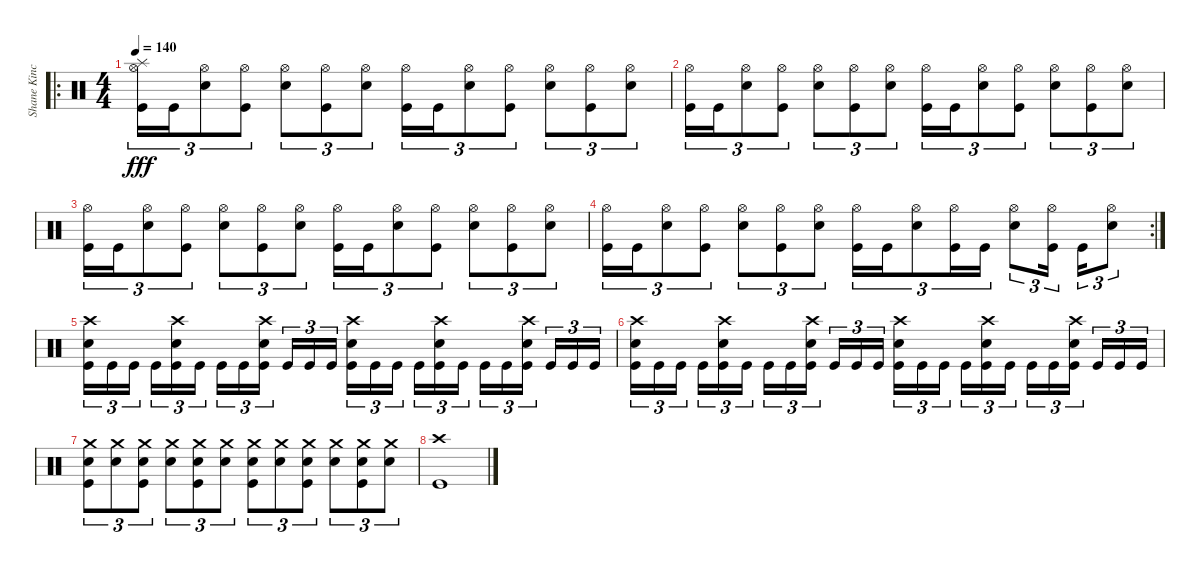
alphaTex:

\track ("Shane Kincaid" "Shane Kinc") {instrument percussion}
\staff {score}
\articulation defaults
\ro
\ts (4 4)
\tempo 140
\clef neutral
\ks c
("Hi-Hat (open)" "Splash (hit)" "Kick (hit)").16{tu (3 2) dy fff} "Kick (hit)".16{tu (3 2)} ("Hi-Hat (open)" "Electric Snare (hit)").8{tu (3 2)} ("Hi-Hat (open)" "Kick (hit)").8{tu (3 2)} ("Hi-Hat (open)" "Electric Snare (hit)").8{tu (3 2)} ("Hi-Hat (open)" "Kick (hit)").8{tu (3 2)} ("Hi-Hat (open)" "Electric Snare (hit)").8{tu (3 2)} ("Hi-Hat (open)" "Kick (hit)").16{tu (3 2)} "Kick (hit)".16{tu (3 2)} ("Hi-Hat (open)" "Electric Snare (hit)").8{tu (3 2)} ("Hi-Hat (open)" "Kick (hit)").8{tu (3 2)} ("Hi-Hat (open)" "Electric Snare (hit)").8{tu (3 2)} ("Hi-Hat (open)" "Kick (hit)").8{tu (3 2)} ("Hi-Hat (open)" "Electric Snare (hit)").8{tu (3 2)} |
("Hi-Hat (open)" "Kick (hit)").16{tu (3 2)} "Kick (hit)".16{tu (3 2)} ("Hi-Hat (open)" "Electric Snare (hit)").8{tu (3 2)} ("Hi-Hat (open)" "Kick (hit)").8{tu (3 2)} ("Hi-Hat (open)" "Electric Snare (hit)").8{tu (3 2)} ("Hi-Hat (open)" "Kick (hit)").8{tu (3 2)} ("Hi-Hat (open)" "Electric Snare (hit)").8{tu (3 2)} ("Hi-Hat (open)" "Kick (hit)").16{tu (3 2)} "Kick (hit)".16{tu (3 2)} ("Hi-Hat (open)" "Electric Snare (hit)").8{tu (3 2)} ("Hi-Hat (open)" "Kick (hit)").8{tu (3 2)} ("Hi-Hat (open)" "Electric Snare (hit)").8{tu (3 2)} ("Hi-Hat (open)" "Kick (hit)").8{tu (3 2)} ("Hi-Hat (open)" "Electric Snare (hit)").8{tu (3 2)} |
("Hi-Hat (open)" "Kick (hit)").16{tu (3 2)} "Kick (hit)".16{tu (3 2)} ("Hi-Hat (open)" "Electric Snare (hit)").8{tu (3 2)} ("Hi-Hat (open)" "Kick (hit)").8{tu (3 2)} ("Hi-Hat (open)" "Electric Snare (hit)").8{tu (3 2)} ("Hi-Hat (open)" "Kick (hit)").8{tu (3 2)} ("Hi-Hat (open)" "Electric Snare (hit)").8{tu (3 2)} ("Hi-Hat (open)" "Kick (hit)").16{tu (3 2)} "Kick (hit)".16{tu (3 2)} ("Hi-Hat (open)" "Electric Snare (hit)").8{tu (3 2)} ("Hi-Hat (open)" "Kick (hit)").8{tu (3 2)} ("Hi-Hat (open)" "Electric Snare (hit)").8{tu (3 2)} ("Hi-Hat (open)" "Kick (hit)").8{tu (3 2)} ("Hi-Hat (open)" "Electric Snare (hit)").8{tu (3 2)} |
\rc 2
("Hi-Hat (open)" "Kick (hit)").16{tu (3 2)} "Kick (hit)".16{tu (3 2)} ("Hi-Hat (open)" "Electric Snare (hit)").8{tu (3 2)} ("Hi-Hat (open)" "Kick (hit)").8{tu (3 2)} ("Hi-Hat (open)" "Electric Snare (hit)").8{tu (3 2)} ("Hi-Hat (open)" "Kick (hit)").8{tu (3 2)} ("Hi-Hat (open)" "Electric Snare (hit)").8{tu (3 2)} ("Hi-Hat (open)" "Kick (hit)").16{tu (3 2)} "Kick (hit)".16{tu (3 2)} ("Hi-Hat (open)" "Electric Snare (hit)").8{tu (3 2)} ("Hi-Hat (open)" "Kick (hit)").16{tu (3 2)} "Kick (hit)".16{tu (3 2)} ("Hi-Hat (open)" "Electric Snare (hit)").8{tu (3 2)} ("Hi-Hat (open)" "Kick (hit)").16{tu (3 2) beam splitsecondary} "Kick (hit)".16{tu (3 2)} ("Hi-Hat (open)" "Electric Snare (hit)").8{tu (3 2)} |
("Crash high (hit)" "Electric Snare (hit)" "Kick (hit)").16{tu (3 2)} "Kick (hit)".16{tu (3 2)} "Kick (hit)".16{tu (3 2) beam splitsecondary} "Kick (hit)".16{tu (3 2)} ("Crash high (hit)" "Electric Snare (hit)" "Kick (hit)").16{tu (3 2)} "Kick (hit)".16{tu (3 2)} "Kick (hit)".16{tu (3 2)} "Kick (hit)".16{tu (3 2)} ("Crash high (hit)" "Electric Snare (hit)" "Kick (hit)").16{tu (3 2) beam splitsecondary} "Kick (hit)".16{tu (3 2)} "Kick (hit)".16{tu (3 2)} "Kick (hit)".16{tu (3 2)} ("Crash high (hit)" "Electric Snare (hit)" "Kick (hit)").16{tu (3 2)} "Kick (hit)".16{tu (3 2)} "Kick (hit)".16{tu (3 2) beam splitsecondary} "Kick (hit)".16{tu (3 2)} ("Crash high (hit)" "Electric Snare (hit)" "Kick (hit)").16{tu (3 2)} "Kick (hit)".16{tu (3 2)} "Kick (hit)".16{tu (3 2)} "Kick (hit)".16{tu (3 2)} ("Crash high (hit)" "Electric Snare (hit)" "Kick (hit)").16{tu (3 2) beam splitsecondary} "Kick (hit)".16{tu (3 2)} "Kick (hit)".16{tu (3 2)} "Kick (hit)".16{tu (3 2)} |
("Crash high (hit)" "Electric Snare (hit)" "Kick (hit)").16{tu (3 2)} "Kick (hit)".16{tu (3 2)} "Kick (hit)".16{tu (3 2) beam splitsecondary} "Kick (hit)".16{tu (3 2)} ("Crash high (hit)" "Electric Snare (hit)" "Kick (hit)").16{tu (3 2)} "Kick (hit)".16{tu (3 2)} "Kick (hit)".16{tu (3 2)} "Kick (hit)".16{tu (3 2)} ("Crash high (hit)" "Electric Snare (hit)" "Kick (hit)").16{tu (3 2) beam splitsecondary} "Kick (hit)".16{tu (3 2)} "Kick (hit)".16{tu (3 2)} "Kick (hit)".16{tu (3 2)} ("Crash high (hit)" "Electric Snare (hit)" "Kick (hit)").16{tu (3 2)} "Kick (hit)".16{tu (3 2)} "Kick (hit)".16{tu (3 2) beam splitsecondary} "Kick (hit)".16{tu (3 2)} ("Crash high (hit)" "Electric Snare (hit)" "Kick (hit)").16{tu (3 2)} "Kick (hit)".16{tu (3 2)} "Kick (hit)".16{tu (3 2)} "Kick (hit)".16{tu (3 2)} ("Crash high (hit)" "Electric Snare (hit)" "Kick (hit)").16{tu (3 2) beam splitsecondary} "Kick (hit)".16{tu (3 2)} "Kick (hit)".16{tu (3 2)} "Kick (hit)".16{tu (3 2)} |
("Crash medium (hit)" "Electric Snare (hit)" "Kick (hit)").8{tu (3 2)} ("Crash medium (hit)" "Electric Snare (hit)").8{tu (3 2)} ("Crash medium (hit)" "Electric Snare (hit)" "Kick (hit)").8{tu (3 2)} ("Crash medium (hit)" "Electric Snare (hit)").8{tu (3 2)} ("Crash medium (hit)" "Electric Snare (hit)" "Kick (hit)").8{tu (3 2)} ("Crash medium (hit)" "Electric Snare (hit)").8{tu (3 2)} ("Crash medium (hit)" "Electric Snare (hit)" "Kick (hit)").8{tu (3 2)} ("Crash medium (hit)" "Electric Snare (hit)").8{tu (3 2)} ("Crash medium (hit)" "Electric Snare (hit)" "Kick (hit)").8{tu (3 2)} ("Crash medium (hit)" "Electric Snare (hit)").8{tu (3 2)} ("Crash medium (hit)" "Electric Snare (hit)" "Kick (hit)").8{tu (3 2)} ("Crash medium (hit)" "Electric Snare (hit)").8{tu (3 2)} |
("Crash high (hit)" "Kick (hit)").1
